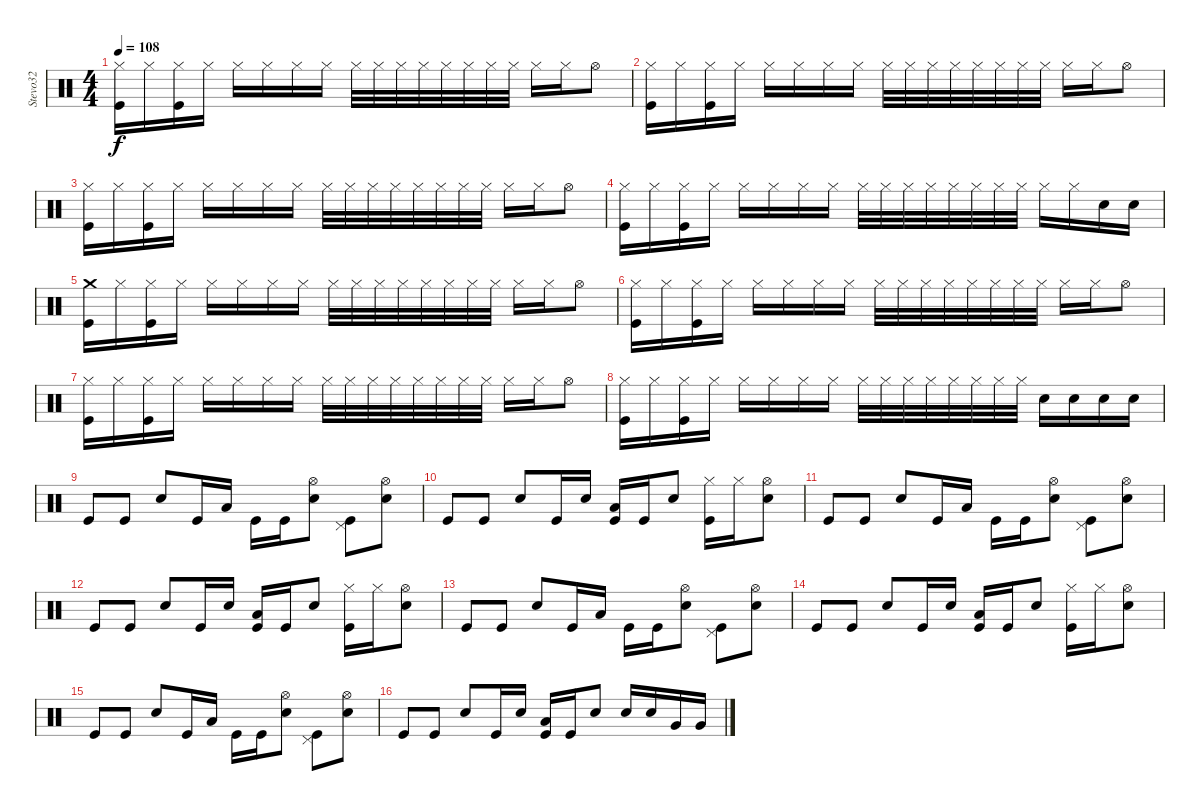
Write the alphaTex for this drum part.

\track ("Stevo32" "Stevo32") {instrument percussion}
\staff {score}
\articulation defaults
\ts (4 4)
\tempo 108
\clef neutral
\ks c
("Hi-Hat (closed)" "Kick (hit)").16{dy f} "Hi-Hat (closed)".16 ("Hi-Hat (closed)" "Kick (hit)").16 "Hi-Hat (closed)".16 "Hi-Hat (closed)".16 "Hi-Hat (closed)".16 "Hi-Hat (closed)".16 "Hi-Hat (closed)".16 "Hi-Hat (closed)".32 "Hi-Hat (closed)".32 "Hi-Hat (closed)".32 "Hi-Hat (closed)".32 "Hi-Hat (closed)".32 "Hi-Hat (closed)".32 "Hi-Hat (closed)".32 "Hi-Hat (closed)".32 "Hi-Hat (closed)".16 "Hi-Hat (closed)".16 "Hi-Hat (open)".8 |
("Hi-Hat (closed)" "Kick (hit)").16 "Hi-Hat (closed)".16 ("Hi-Hat (closed)" "Kick (hit)").16 "Hi-Hat (closed)".16 "Hi-Hat (closed)".16 "Hi-Hat (closed)".16 "Hi-Hat (closed)".16 "Hi-Hat (closed)".16 "Hi-Hat (closed)".32 "Hi-Hat (closed)".32 "Hi-Hat (closed)".32 "Hi-Hat (closed)".32 "Hi-Hat (closed)".32 "Hi-Hat (closed)".32 "Hi-Hat (closed)".32 "Hi-Hat (closed)".32 "Hi-Hat (closed)".16 "Hi-Hat (closed)".16 "Hi-Hat (open)".8 |
("Hi-Hat (closed)" "Kick (hit)").16 "Hi-Hat (closed)".16 ("Hi-Hat (closed)" "Kick (hit)").16 "Hi-Hat (closed)".16 "Hi-Hat (closed)".16 "Hi-Hat (closed)".16 "Hi-Hat (closed)".16 "Hi-Hat (closed)".16 "Hi-Hat (closed)".32 "Hi-Hat (closed)".32 "Hi-Hat (closed)".32 "Hi-Hat (closed)".32 "Hi-Hat (closed)".32 "Hi-Hat (closed)".32 "Hi-Hat (closed)".32 "Hi-Hat (closed)".32 "Hi-Hat (closed)".16 "Hi-Hat (closed)".16 "Hi-Hat (open)".8 |
("Hi-Hat (closed)" "Kick (hit)").16 "Hi-Hat (closed)".16 ("Hi-Hat (closed)" "Kick (hit)").16 "Hi-Hat (closed)".16 "Hi-Hat (closed)".16 "Hi-Hat (closed)".16 "Hi-Hat (closed)".16 "Hi-Hat (closed)".16 "Hi-Hat (closed)".32 "Hi-Hat (closed)".32 "Hi-Hat (closed)".32 "Hi-Hat (closed)".32 "Hi-Hat (closed)".32 "Hi-Hat (closed)".32 "Hi-Hat (closed)".32 "Hi-Hat (closed)".32 "Hi-Hat (closed)".16 "Hi-Hat (closed)".16 "Electric Snare (hit)".16 "Electric Snare (hit)".16 |
("Crash medium (hit)" "Kick (hit)").16 "Hi-Hat (closed)".16 ("Hi-Hat (closed)" "Kick (hit)").16 "Hi-Hat (closed)".16 "Hi-Hat (closed)".16 "Hi-Hat (closed)".16 "Hi-Hat (closed)".16 "Hi-Hat (closed)".16 "Hi-Hat (closed)".32 "Hi-Hat (closed)".32 "Hi-Hat (closed)".32 "Hi-Hat (closed)".32 "Hi-Hat (closed)".32 "Hi-Hat (closed)".32 "Hi-Hat (closed)".32 "Hi-Hat (closed)".32 "Hi-Hat (closed)".16 "Hi-Hat (closed)".16 "Hi-Hat (open)".8 |
("Hi-Hat (closed)" "Kick (hit)").16 "Hi-Hat (closed)".16 ("Hi-Hat (closed)" "Kick (hit)").16 "Hi-Hat (closed)".16 "Hi-Hat (closed)".16 "Hi-Hat (closed)".16 "Hi-Hat (closed)".16 "Hi-Hat (closed)".16 "Hi-Hat (closed)".32 "Hi-Hat (closed)".32 "Hi-Hat (closed)".32 "Hi-Hat (closed)".32 "Hi-Hat (closed)".32 "Hi-Hat (closed)".32 "Hi-Hat (closed)".32 "Hi-Hat (closed)".32 "Hi-Hat (closed)".16 "Hi-Hat (closed)".16 "Hi-Hat (open)".8 |
("Hi-Hat (closed)" "Kick (hit)").16 "Hi-Hat (closed)".16 ("Hi-Hat (closed)" "Kick (hit)").16 "Hi-Hat (closed)".16 "Hi-Hat (closed)".16 "Hi-Hat (closed)".16 "Hi-Hat (closed)".16 "Hi-Hat (closed)".16 "Hi-Hat (closed)".32 "Hi-Hat (closed)".32 "Hi-Hat (closed)".32 "Hi-Hat (closed)".32 "Hi-Hat (closed)".32 "Hi-Hat (closed)".32 "Hi-Hat (closed)".32 "Hi-Hat (closed)".32 "Hi-Hat (closed)".16 "Hi-Hat (closed)".16 "Hi-Hat (open)".8 |
("Hi-Hat (closed)" "Kick (hit)").16 "Hi-Hat (closed)".16 ("Hi-Hat (closed)" "Kick (hit)").16 "Hi-Hat (closed)".16 "Hi-Hat (closed)".16 "Hi-Hat (closed)".16 "Hi-Hat (closed)".16 "Hi-Hat (closed)".16 "Hi-Hat (closed)".32 "Hi-Hat (closed)".32 "Hi-Hat (closed)".32 "Hi-Hat (closed)".32 "Hi-Hat (closed)".32 "Hi-Hat (closed)".32 "Hi-Hat (closed)".32 "Hi-Hat (closed)".32 "Electric Snare (hit)".16 "Electric Snare (hit)".16 "Electric Snare (hit)".16 "Electric Snare (hit)".16 |
"Kick (hit)".8 "Kick (hit)".8 "Electric Snare (hit)".8 "Kick (hit)".16 "Low Floor Tom (hit)".16 "Kick (hit)".16 "Kick (hit)".16 ("Hi-Hat (open)" "Electric Snare (hit)").8 ("Pedal Hi-Hat (hit)" "Kick (hit)").8 ("Hi-Hat (open)" "Electric Snare (hit)").8 |
"Kick (hit)".8 "Kick (hit)".8 "Electric Snare (hit)".8 "Kick (hit)".16 "Electric Snare (hit)".16 ("Low Floor Tom (hit)" "Kick (hit)").16 "Kick (hit)".16 "Electric Snare (hit)".8 ("Hi-Hat (closed)" "Kick (hit)").16 "Hi-Hat (closed)".16 ("Hi-Hat (open)" "Electric Snare (hit)").8 |
"Kick (hit)".8 "Kick (hit)".8 "Electric Snare (hit)".8 "Kick (hit)".16 "Low Floor Tom (hit)".16 "Kick (hit)".16 "Kick (hit)".16 ("Hi-Hat (open)" "Electric Snare (hit)").8 ("Pedal Hi-Hat (hit)" "Kick (hit)").8 ("Hi-Hat (open)" "Electric Snare (hit)").8 |
"Kick (hit)".8 "Kick (hit)".8 "Electric Snare (hit)".8 "Kick (hit)".16 "Electric Snare (hit)".16 ("Low Floor Tom (hit)" "Kick (hit)").16 "Kick (hit)".16 "Electric Snare (hit)".8 ("Hi-Hat (closed)" "Kick (hit)").16 "Hi-Hat (closed)".16 ("Hi-Hat (open)" "Electric Snare (hit)").8 |
"Kick (hit)".8 "Kick (hit)".8 "Electric Snare (hit)".8 "Kick (hit)".16 "Low Floor Tom (hit)".16 "Kick (hit)".16 "Kick (hit)".16 ("Hi-Hat (open)" "Electric Snare (hit)").8 ("Pedal Hi-Hat (hit)" "Kick (hit)").8 ("Hi-Hat (open)" "Electric Snare (hit)").8 |
"Kick (hit)".8 "Kick (hit)".8 "Electric Snare (hit)".8 "Kick (hit)".16 "Electric Snare (hit)".16 ("Low Floor Tom (hit)" "Kick (hit)").16 "Kick (hit)".16 "Electric Snare (hit)".8 ("Hi-Hat (closed)" "Kick (hit)").16 "Hi-Hat (closed)".16 ("Hi-Hat (open)" "Electric Snare (hit)").8 |
"Kick (hit)".8 "Kick (hit)".8 "Electric Snare (hit)".8 "Kick (hit)".16 "Low Floor Tom (hit)".16 "Kick (hit)".16 "Kick (hit)".16 ("Hi-Hat (open)" "Electric Snare (hit)").8 ("Pedal Hi-Hat (hit)" "Kick (hit)").8 ("Hi-Hat (open)" "Electric Snare (hit)").8 |
"Kick (hit)".8 "Kick (hit)".8 "Electric Snare (hit)".8 "Kick (hit)".16 "Electric Snare (hit)".16 ("Low Floor Tom (hit)" "Kick (hit)").16 "Kick (hit)".16 "Electric Snare (hit)".8 "Electric Snare (hit)".16 "Electric Snare (hit)".16 "Very Low Tom (hit)".16 "Very Low Tom (hit)".16
